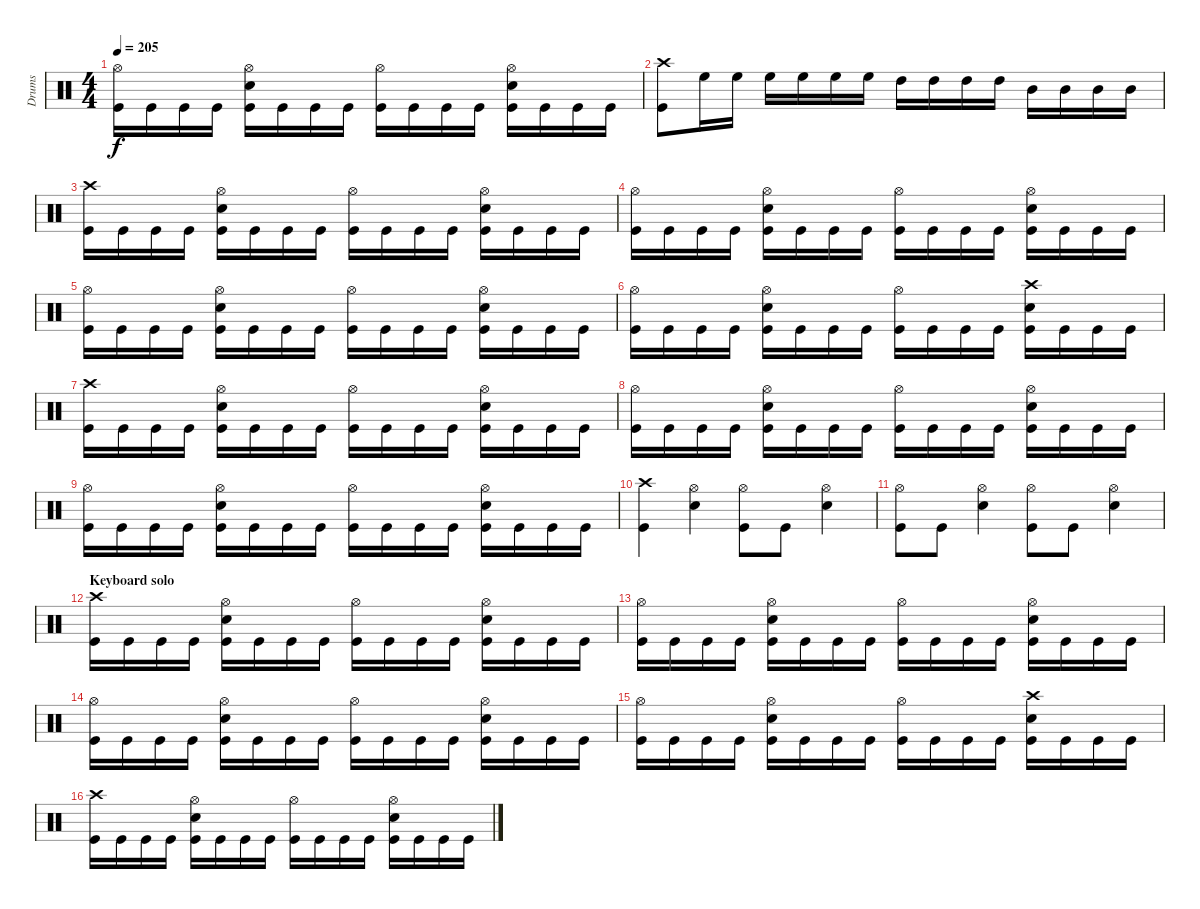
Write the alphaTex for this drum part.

\track ("Drums" "Drums") {instrument percussion}
\staff {score}
\articulation defaults
\ts (4 4)
\tempo 205
\clef neutral
\ks c
("Hi-Hat (open)" "Kick (hit)").16{dy f} "Kick (hit)".16 "Kick (hit)".16 "Kick (hit)".16 ("Hi-Hat (open)" "Snare (hit) 2" "Kick (hit)").16 "Kick (hit)".16 "Kick (hit)".16 "Kick (hit)".16 ("Hi-Hat (open)" "Kick (hit)").16 "Kick (hit)".16 "Kick (hit)".16 "Kick (hit)".16 ("Hi-Hat (open)" "Snare (hit) 2" "Kick (hit)").16 "Kick (hit)".16 "Kick (hit)".16 "Kick (hit)".16 |
("Crash high (hit)" "Kick (hit)").8 "High Floor Tom (hit)".16 "High Floor Tom (hit)".16 "High Floor Tom (hit)".16 "High Floor Tom (hit)".16 "High Floor Tom (hit)".16 "High Floor Tom (hit)".16 "High Tom (hit)".16 "High Tom (hit)".16 "High Tom (hit)".16 "High Tom (hit)".16 "Mid Tom (hit)".16 "Mid Tom (hit)".16 "Mid Tom (hit)".16 "Mid Tom (hit)".16 |
("Crash high (hit)" "Kick (hit)").16 "Kick (hit)".16 "Kick (hit)".16 "Kick (hit)".16 ("Hi-Hat (open)" "Snare (hit) 2" "Kick (hit)").16 "Kick (hit)".16 "Kick (hit)".16 "Kick (hit)".16 ("Hi-Hat (open)" "Kick (hit)").16 "Kick (hit)".16 "Kick (hit)".16 "Kick (hit)".16 ("Hi-Hat (open)" "Snare (hit) 2" "Kick (hit)").16 "Kick (hit)".16 "Kick (hit)".16 "Kick (hit)".16 |
("Hi-Hat (open)" "Kick (hit)").16 "Kick (hit)".16 "Kick (hit)".16 "Kick (hit)".16 ("Hi-Hat (open)" "Snare (hit) 2" "Kick (hit)").16 "Kick (hit)".16 "Kick (hit)".16 "Kick (hit)".16 ("Hi-Hat (open)" "Kick (hit)").16 "Kick (hit)".16 "Kick (hit)".16 "Kick (hit)".16 ("Hi-Hat (open)" "Snare (hit) 2" "Kick (hit)").16 "Kick (hit)".16 "Kick (hit)".16 "Kick (hit)".16 |
("Hi-Hat (open)" "Kick (hit)").16 "Kick (hit)".16 "Kick (hit)".16 "Kick (hit)".16 ("Hi-Hat (open)" "Snare (hit) 2" "Kick (hit)").16 "Kick (hit)".16 "Kick (hit)".16 "Kick (hit)".16 ("Hi-Hat (open)" "Kick (hit)").16 "Kick (hit)".16 "Kick (hit)".16 "Kick (hit)".16 ("Hi-Hat (open)" "Snare (hit) 2" "Kick (hit)").16 "Kick (hit)".16 "Kick (hit)".16 "Kick (hit)".16 |
("Hi-Hat (open)" "Kick (hit)").16 "Kick (hit)".16 "Kick (hit)".16 "Kick (hit)".16 ("Hi-Hat (open)" "Snare (hit) 2" "Kick (hit)").16 "Kick (hit)".16 "Kick (hit)".16 "Kick (hit)".16 ("Hi-Hat (open)" "Kick (hit)").16 "Kick (hit)".16 "Kick (hit)".16 "Kick (hit)".16 ("Crash high (hit)" "Snare (hit) 2" "Kick (hit)").16 "Kick (hit)".16 "Kick (hit)".16 "Kick (hit)".16 |
("Crash high (hit)" "Kick (hit)").16 "Kick (hit)".16 "Kick (hit)".16 "Kick (hit)".16 ("Hi-Hat (open)" "Snare (hit) 2" "Kick (hit)").16 "Kick (hit)".16 "Kick (hit)".16 "Kick (hit)".16 ("Hi-Hat (open)" "Kick (hit)").16 "Kick (hit)".16 "Kick (hit)".16 "Kick (hit)".16 ("Hi-Hat (open)" "Snare (hit) 2" "Kick (hit)").16 "Kick (hit)".16 "Kick (hit)".16 "Kick (hit)".16 |
("Hi-Hat (open)" "Kick (hit)").16 "Kick (hit)".16 "Kick (hit)".16 "Kick (hit)".16 ("Hi-Hat (open)" "Snare (hit) 2" "Kick (hit)").16 "Kick (hit)".16 "Kick (hit)".16 "Kick (hit)".16 ("Hi-Hat (open)" "Kick (hit)").16 "Kick (hit)".16 "Kick (hit)".16 "Kick (hit)".16 ("Hi-Hat (open)" "Snare (hit) 2" "Kick (hit)").16 "Kick (hit)".16 "Kick (hit)".16 "Kick (hit)".16 |
("Hi-Hat (open)" "Kick (hit)").16 "Kick (hit)".16 "Kick (hit)".16 "Kick (hit)".16 ("Hi-Hat (open)" "Snare (hit) 2" "Kick (hit)").16 "Kick (hit)".16 "Kick (hit)".16 "Kick (hit)".16 ("Hi-Hat (open)" "Kick (hit)").16 "Kick (hit)".16 "Kick (hit)".16 "Kick (hit)".16 ("Hi-Hat (open)" "Snare (hit) 2" "Kick (hit)").16 "Kick (hit)".16 "Kick (hit)".16 "Kick (hit)".16 |
("Crash high (hit)" "Kick (hit)").4 ("Hi-Hat (open)" "Snare (hit) 2").4 ("Hi-Hat (open)" "Kick (hit)").8 "Kick (hit)".8 ("Hi-Hat (open)" "Snare (hit) 2").4 |
("Hi-Hat (open)" "Kick (hit)").8 "Kick (hit)".8 ("Hi-Hat (open)" "Snare (hit) 2").4 ("Hi-Hat (open)" "Kick (hit)").8 "Kick (hit)".8 ("Hi-Hat (open)" "Snare (hit) 2").4 |
\section ("" "Keyboard solo")
("Crash high (hit)" "Kick (hit)").16 "Kick (hit)".16 "Kick (hit)".16 "Kick (hit)".16 ("Hi-Hat (open)" "Snare (hit) 2" "Kick (hit)").16 "Kick (hit)".16 "Kick (hit)".16 "Kick (hit)".16 ("Hi-Hat (open)" "Kick (hit)").16 "Kick (hit)".16 "Kick (hit)".16 "Kick (hit)".16 ("Hi-Hat (open)" "Snare (hit) 2" "Kick (hit)").16 "Kick (hit)".16 "Kick (hit)".16 "Kick (hit)".16 |
("Hi-Hat (open)" "Kick (hit)").16 "Kick (hit)".16 "Kick (hit)".16 "Kick (hit)".16 ("Hi-Hat (open)" "Snare (hit) 2" "Kick (hit)").16 "Kick (hit)".16 "Kick (hit)".16 "Kick (hit)".16 ("Hi-Hat (open)" "Kick (hit)").16 "Kick (hit)".16 "Kick (hit)".16 "Kick (hit)".16 ("Hi-Hat (open)" "Snare (hit) 2" "Kick (hit)").16 "Kick (hit)".16 "Kick (hit)".16 "Kick (hit)".16 |
("Hi-Hat (open)" "Kick (hit)").16 "Kick (hit)".16 "Kick (hit)".16 "Kick (hit)".16 ("Hi-Hat (open)" "Snare (hit) 2" "Kick (hit)").16 "Kick (hit)".16 "Kick (hit)".16 "Kick (hit)".16 ("Hi-Hat (open)" "Kick (hit)").16 "Kick (hit)".16 "Kick (hit)".16 "Kick (hit)".16 ("Hi-Hat (open)" "Snare (hit) 2" "Kick (hit)").16 "Kick (hit)".16 "Kick (hit)".16 "Kick (hit)".16 |
("Hi-Hat (open)" "Kick (hit)").16 "Kick (hit)".16 "Kick (hit)".16 "Kick (hit)".16 ("Hi-Hat (open)" "Snare (hit) 2" "Kick (hit)").16 "Kick (hit)".16 "Kick (hit)".16 "Kick (hit)".16 ("Hi-Hat (open)" "Kick (hit)").16 "Kick (hit)".16 "Kick (hit)".16 "Kick (hit)".16 ("Crash high (hit)" "Snare (hit) 2" "Kick (hit)").16 "Kick (hit)".16 "Kick (hit)".16 "Kick (hit)".16 |
("Crash high (hit)" "Kick (hit)").16 "Kick (hit)".16 "Kick (hit)".16 "Kick (hit)".16 ("Hi-Hat (open)" "Snare (hit) 2" "Kick (hit)").16 "Kick (hit)".16 "Kick (hit)".16 "Kick (hit)".16 ("Hi-Hat (open)" "Kick (hit)").16 "Kick (hit)".16 "Kick (hit)".16 "Kick (hit)".16 ("Hi-Hat (open)" "Snare (hit) 2" "Kick (hit)").16 "Kick (hit)".16 "Kick (hit)".16 "Kick (hit)".16
